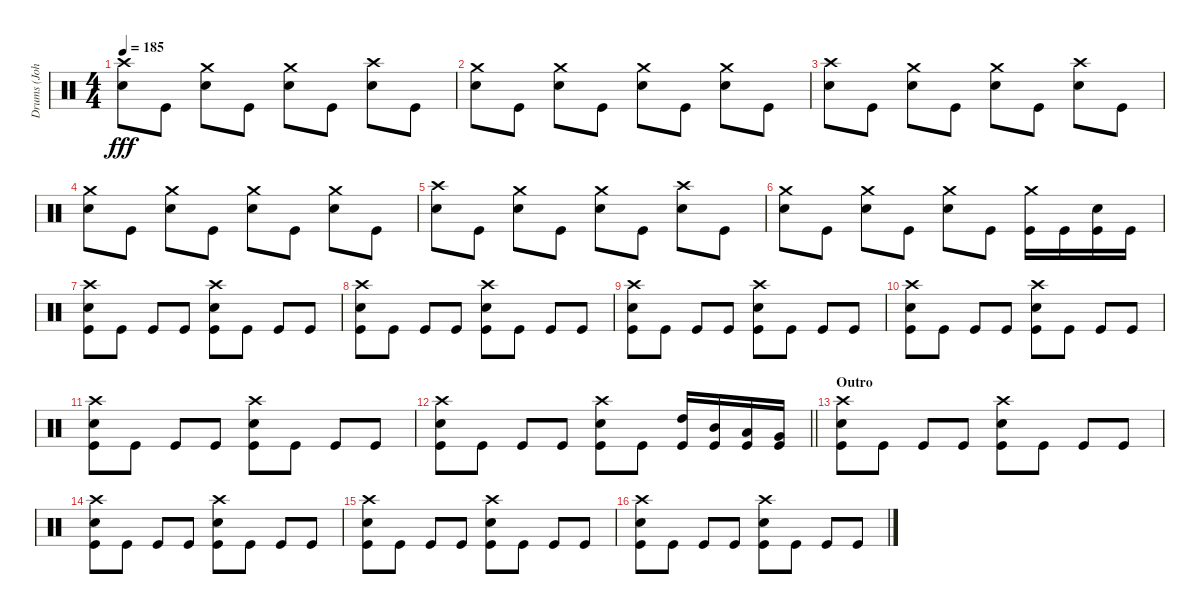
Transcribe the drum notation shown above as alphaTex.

\track ("Drums (John Bengtsson)" "Drums (Joh") {instrument percussion}
\staff {score}
\articulation defaults
\ts (4 4)
\tempo 185
\clef neutral
\ks c
("Crash high (hit)" "Electric Snare (hit)").8{dy fff} "Kick (hit)".8 ("Crash medium (hit)" "Electric Snare (hit)").8 "Kick (hit)".8 ("Crash medium (hit)" "Electric Snare (hit)").8 "Kick (hit)".8 ("Crash high (hit)" "Electric Snare (hit)").8 "Kick (hit)".8 |
("Crash medium (hit)" "Electric Snare (hit)").8 "Kick (hit)".8 ("Crash medium (hit)" "Electric Snare (hit)").8 "Kick (hit)".8 ("Crash medium (hit)" "Electric Snare (hit)").8 "Kick (hit)".8 ("Crash medium (hit)" "Electric Snare (hit)").8 "Kick (hit)".8 |
("Crash high (hit)" "Electric Snare (hit)").8 "Kick (hit)".8 ("Crash medium (hit)" "Electric Snare (hit)").8 "Kick (hit)".8 ("Crash medium (hit)" "Electric Snare (hit)").8 "Kick (hit)".8 ("Crash high (hit)" "Electric Snare (hit)").8 "Kick (hit)".8 |
("Crash medium (hit)" "Electric Snare (hit)").8 "Kick (hit)".8 ("Crash medium (hit)" "Electric Snare (hit)").8 "Kick (hit)".8 ("Crash medium (hit)" "Electric Snare (hit)").8 "Kick (hit)".8 ("Crash medium (hit)" "Electric Snare (hit)").8 "Kick (hit)".8 |
("Crash high (hit)" "Electric Snare (hit)").8 "Kick (hit)".8 ("Crash medium (hit)" "Electric Snare (hit)").8 "Kick (hit)".8 ("Crash medium (hit)" "Electric Snare (hit)").8 "Kick (hit)".8 ("Crash high (hit)" "Electric Snare (hit)").8 "Kick (hit)".8 |
("Crash medium (hit)" "Electric Snare (hit)").8 "Kick (hit)".8 ("Crash medium (hit)" "Electric Snare (hit)").8 "Kick (hit)".8 ("Crash medium (hit)" "Electric Snare (hit)").8 "Kick (hit)".8 ("Crash medium (hit)" "Kick (hit)").16 "Kick (hit)".16 ("Electric Snare (hit)" "Kick (hit)").16 "Kick (hit)".16 |
("Crash high (hit)" "Electric Snare (hit)" "Kick (hit)").8 "Kick (hit)".8 "Kick (hit)".8 "Kick (hit)".8 ("Crash high (hit)" "Electric Snare (hit)" "Kick (hit)").8 "Kick (hit)".8 "Kick (hit)".8 "Kick (hit)".8 |
("Crash high (hit)" "Electric Snare (hit)" "Kick (hit)").8 "Kick (hit)".8 "Kick (hit)".8 "Kick (hit)".8 ("Crash high (hit)" "Electric Snare (hit)" "Kick (hit)").8 "Kick (hit)".8 "Kick (hit)".8 "Kick (hit)".8 |
("Crash high (hit)" "Electric Snare (hit)" "Kick (hit)").8 "Kick (hit)".8 "Kick (hit)".8 "Kick (hit)".8 ("Crash high (hit)" "Electric Snare (hit)" "Kick (hit)").8 "Kick (hit)".8 "Kick (hit)".8 "Kick (hit)".8 |
("Crash high (hit)" "Electric Snare (hit)" "Kick (hit)").8 "Kick (hit)".8 "Kick (hit)".8 "Kick (hit)".8 ("Crash high (hit)" "Electric Snare (hit)" "Kick (hit)").8 "Kick (hit)".8 "Kick (hit)".8 "Kick (hit)".8 |
("Crash high (hit)" "Electric Snare (hit)" "Kick (hit)").8 "Kick (hit)".8 "Kick (hit)".8 "Kick (hit)".8 ("Crash high (hit)" "Electric Snare (hit)" "Kick (hit)").8 "Kick (hit)".8 "Kick (hit)".8 "Kick (hit)".8 |
\barLineRight lightlight
("Crash high (hit)" "Electric Snare (hit)" "Kick (hit)").8 "Kick (hit)".8 "Kick (hit)".8 "Kick (hit)".8 ("Crash high (hit)" "Electric Snare (hit)" "Kick (hit)").8 "Kick (hit)".8 ("High Tom (hit)" "Kick (hit)").16 ("Mid Tom (hit)" "Kick (hit)").16 ("Low Tom (hit)" "Kick (hit)").16 ("Very Low Tom (hit)" "Kick (hit)").16 |
\section ("" "Outro")
("Crash high (hit)" "Electric Snare (hit)" "Kick (hit)").8 "Kick (hit)".8 "Kick (hit)".8 "Kick (hit)".8 ("Crash high (hit)" "Electric Snare (hit)" "Kick (hit)").8 "Kick (hit)".8 "Kick (hit)".8 "Kick (hit)".8 |
("Crash high (hit)" "Electric Snare (hit)" "Kick (hit)").8 "Kick (hit)".8 "Kick (hit)".8 "Kick (hit)".8 ("Crash high (hit)" "Electric Snare (hit)" "Kick (hit)").8 "Kick (hit)".8 "Kick (hit)".8 "Kick (hit)".8 |
("Crash high (hit)" "Electric Snare (hit)" "Kick (hit)").8 "Kick (hit)".8 "Kick (hit)".8 "Kick (hit)".8 ("Crash high (hit)" "Electric Snare (hit)" "Kick (hit)").8 "Kick (hit)".8 "Kick (hit)".8 "Kick (hit)".8 |
("Crash high (hit)" "Electric Snare (hit)" "Kick (hit)").8 "Kick (hit)".8 "Kick (hit)".8 "Kick (hit)".8 ("Crash high (hit)" "Electric Snare (hit)" "Kick (hit)").8 "Kick (hit)".8 "Kick (hit)".8 "Kick (hit)".8
